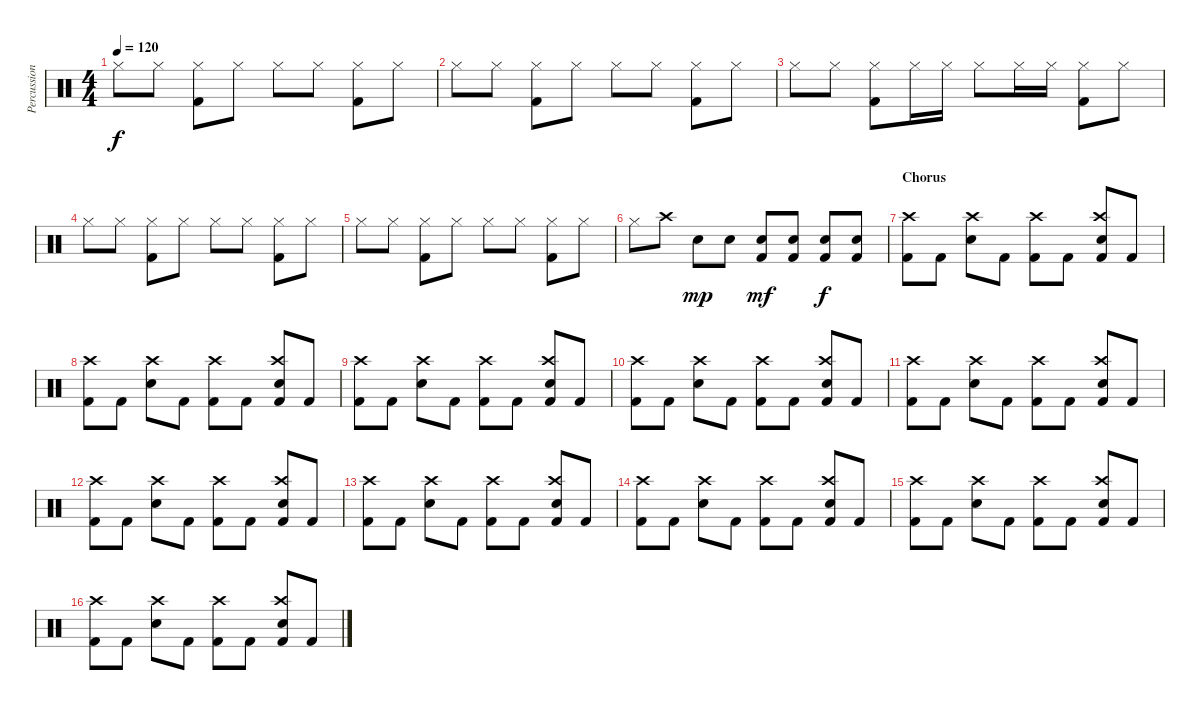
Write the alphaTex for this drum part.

\track ("Percussion" "Percussion") {instrument percussion}
\staff {score}
\articulation defaults
\ts (4 4)
\tempo 120
\clef neutral
\ks c "Hi-Hat (closed)".8{dy f} "Hi-Hat (closed)".8
("Hi-Hat (closed)" "Kick (hit) 2").8 "Hi-Hat (closed)".8 "Hi-Hat (closed)".8 "Hi-Hat (closed)".8 ("Hi-Hat (closed)" "Kick (hit) 2").8 "Hi-Hat (closed)".8 |
"Hi-Hat (closed)".8 "Hi-Hat (closed)".8 ("Hi-Hat (closed)" "Kick (hit) 2").8 "Hi-Hat (closed)".8 "Hi-Hat (closed)".8 "Hi-Hat (closed)".8 ("Hi-Hat (closed)" "Kick (hit) 2").8 "Hi-Hat (closed)".8 |
"Hi-Hat (closed)".8 "Hi-Hat (closed)".8 ("Hi-Hat (closed)" "Kick (hit) 2").8 "Hi-Hat (closed)".16 "Hi-Hat (closed)".16 "Hi-Hat (closed)".8 "Hi-Hat (closed)".16 "Hi-Hat (closed)".16 ("Hi-Hat (closed)" "Kick (hit) 2").8 "Hi-Hat (closed)".8 |
"Hi-Hat (closed)".8 "Hi-Hat (closed)".8 ("Hi-Hat (closed)" "Kick (hit) 2").8 "Hi-Hat (closed)".8 "Hi-Hat (closed)".8 "Hi-Hat (closed)".8 ("Hi-Hat (closed)" "Kick (hit) 2").8 "Hi-Hat (closed)".8 |
"Hi-Hat (closed)".8 "Hi-Hat (closed)".8 ("Hi-Hat (closed)" "Kick (hit) 2").8 "Hi-Hat (closed)".8 "Hi-Hat (closed)".8 "Hi-Hat (closed)".8 ("Hi-Hat (closed)" "Kick (hit) 2").8 "Hi-Hat (closed)".8 |
"Hi-Hat (closed)".8 "Crash high (hit)".8 "Electric Snare (hit)".8{dy mp} "Electric Snare (hit)".8 ("Electric Snare (hit)" "Kick (hit) 2").8{dy mf} ("Electric Snare (hit)" "Kick (hit) 2").8 ("Electric Snare (hit)" "Kick (hit) 2").8{dy f} ("Electric Snare (hit)" "Kick (hit) 2").8 |
\section ("" "Chorus")
("Crash high (hit)" "Kick (hit) 2").8 "Kick (hit) 2".8 ("Crash high (hit)" "Electric Snare (hit)").8 "Kick (hit) 2".8 ("Crash high (hit)" "Kick (hit) 2").8 "Kick (hit) 2".8 ("Crash high (hit)" "Electric Snare (hit)" "Kick (hit) 2").8 "Kick (hit) 2".8 |
("Crash high (hit)" "Kick (hit) 2").8 "Kick (hit) 2".8 ("Crash high (hit)" "Electric Snare (hit)").8 "Kick (hit) 2".8 ("Crash high (hit)" "Kick (hit) 2").8 "Kick (hit) 2".8 ("Crash high (hit)" "Electric Snare (hit)" "Kick (hit) 2").8 "Kick (hit) 2".8 |
("Crash high (hit)" "Kick (hit) 2").8 "Kick (hit) 2".8 ("Crash high (hit)" "Electric Snare (hit)").8 "Kick (hit) 2".8 ("Crash high (hit)" "Kick (hit) 2").8 "Kick (hit) 2".8 ("Crash high (hit)" "Electric Snare (hit)" "Kick (hit) 2").8 "Kick (hit) 2".8 |
("Crash high (hit)" "Kick (hit) 2").8 "Kick (hit) 2".8 ("Crash high (hit)" "Electric Snare (hit)").8 "Kick (hit) 2".8 ("Crash high (hit)" "Kick (hit) 2").8 "Kick (hit) 2".8 ("Crash high (hit)" "Electric Snare (hit)" "Kick (hit) 2").8 "Kick (hit) 2".8 |
("Crash high (hit)" "Kick (hit) 2").8 "Kick (hit) 2".8 ("Crash high (hit)" "Electric Snare (hit)").8 "Kick (hit) 2".8 ("Crash high (hit)" "Kick (hit) 2").8 "Kick (hit) 2".8 ("Crash high (hit)" "Electric Snare (hit)" "Kick (hit) 2").8 "Kick (hit) 2".8 |
("Crash high (hit)" "Kick (hit) 2").8 "Kick (hit) 2".8 ("Crash high (hit)" "Electric Snare (hit)").8 "Kick (hit) 2".8 ("Crash high (hit)" "Kick (hit) 2").8 "Kick (hit) 2".8 ("Crash high (hit)" "Electric Snare (hit)" "Kick (hit) 2").8 "Kick (hit) 2".8 |
("Crash high (hit)" "Kick (hit) 2").8 "Kick (hit) 2".8 ("Crash high (hit)" "Electric Snare (hit)").8 "Kick (hit) 2".8 ("Crash high (hit)" "Kick (hit) 2").8 "Kick (hit) 2".8 ("Crash high (hit)" "Electric Snare (hit)" "Kick (hit) 2").8 "Kick (hit) 2".8 |
("Crash high (hit)" "Kick (hit) 2").8 "Kick (hit) 2".8 ("Crash high (hit)" "Electric Snare (hit)").8 "Kick (hit) 2".8 ("Crash high (hit)" "Kick (hit) 2").8 "Kick (hit) 2".8 ("Crash high (hit)" "Electric Snare (hit)" "Kick (hit) 2").8 "Kick (hit) 2".8 |
("Crash high (hit)" "Kick (hit) 2").8 "Kick (hit) 2".8 ("Crash high (hit)" "Electric Snare (hit)").8 "Kick (hit) 2".8 ("Crash high (hit)" "Kick (hit) 2").8 "Kick (hit) 2".8 ("Crash high (hit)" "Electric Snare (hit)" "Kick (hit) 2").8 "Kick (hit) 2".8 |
("Crash high (hit)" "Kick (hit) 2").8 "Kick (hit) 2".8 ("Crash high (hit)" "Electric Snare (hit)").8 "Kick (hit) 2".8 ("Crash high (hit)" "Kick (hit) 2").8 "Kick (hit) 2".8 ("Crash high (hit)" "Electric Snare (hit)" "Kick (hit) 2").8 "Kick (hit) 2".8
